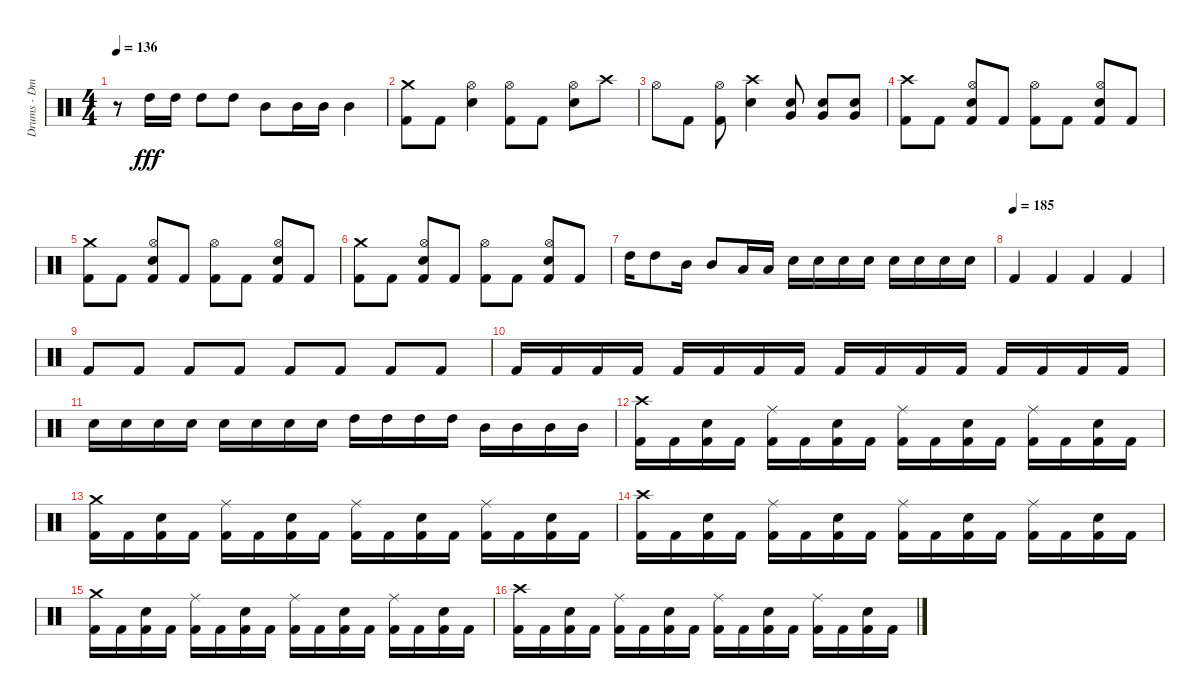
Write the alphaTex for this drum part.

\track ("Drums - Dmitriy Krivenkov" "Drums - Dm") {instrument percussion}
\staff {score}
\articulation defaults
\ts (4 4)
\tempo 136
\clef neutral
\ks c
r.8{dy fff} "High Tom (hit)".16 "High Tom (hit)".16 "High Tom (hit)".8 "High Tom (hit)".8 "Mid Tom (hit)".8 "Mid Tom (hit)".16 "Mid Tom (hit)".16 "Mid Tom (hit)".4 |
("Crash medium (hit)" "Kick (hit) 2").8 "Kick (hit) 2".8 ("Hi-Hat (open)" "Electric Snare (hit)").4 ("Hi-Hat (open)" "Kick (hit) 2").8 "Kick (hit) 2".8 ("Hi-Hat (open)" "Electric Snare (hit)").8 "Crash high (hit)".8 |
"Hi-Hat (open)".8 "Kick (hit) 2".8 ("Hi-Hat (open)" "Kick (hit) 2").8 ("Crash high (hit)" "Electric Snare (hit)").4 ("Very Low Tom (hit)" "Electric Snare (hit)").8 ("Very Low Tom (hit)" "Electric Snare (hit)").8 ("Very Low Tom (hit)" "Electric Snare (hit)").8 |
("Crash high (hit)" "Kick (hit) 2").8 "Kick (hit) 2".8 ("Hi-Hat (open)" "Electric Snare (hit)" "Kick (hit) 2").8 "Kick (hit) 2".8 ("Hi-Hat (open)" "Kick (hit) 2").8 "Kick (hit) 2".8 ("Hi-Hat (open)" "Electric Snare (hit)" "Kick (hit) 2").8 "Kick (hit) 2".8 |
("Crash medium (hit)" "Kick (hit) 2").8 "Kick (hit) 2".8 ("Hi-Hat (open)" "Electric Snare (hit)" "Kick (hit) 2").8 "Kick (hit) 2".8 ("Hi-Hat (open)" "Kick (hit) 2").8 "Kick (hit) 2".8 ("Hi-Hat (open)" "Electric Snare (hit)" "Kick (hit) 2").8 "Kick (hit) 2".8 |
("Crash medium (hit)" "Kick (hit) 2").8 "Kick (hit) 2".8 ("Hi-Hat (open)" "Electric Snare (hit)" "Kick (hit) 2").8 "Kick (hit) 2".8 ("Hi-Hat (open)" "Kick (hit) 2").8 "Kick (hit) 2".8 ("Hi-Hat (open)" "Electric Snare (hit)" "Kick (hit) 2").8 "Kick (hit) 2".8 |
"High Tom (hit)".16 "High Tom (hit)".8 "Mid Tom (hit)".16 "Mid Tom (hit)".8 "Low Tom (hit)".16 "Low Tom (hit)".16 "Electric Snare (hit)".16 "Electric Snare (hit)".16 "Electric Snare (hit)".16 "Electric Snare (hit)".16 "Electric Snare (hit)".16 "Electric Snare (hit)".16 "Electric Snare (hit)".16 "Electric Snare (hit)".16 |
\tempo (185)
"Kick (hit) 2".4 "Kick (hit) 2".4 "Kick (hit) 2".4 "Kick (hit) 2".4 |
"Kick (hit) 2".8 "Kick (hit) 2".8 "Kick (hit) 2".8 "Kick (hit) 2".8 "Kick (hit) 2".8 "Kick (hit) 2".8 "Kick (hit) 2".8 "Kick (hit) 2".8 |
"Kick (hit) 2".16 "Kick (hit) 2".16 "Kick (hit) 2".16 "Kick (hit) 2".16 "Kick (hit) 2".16 "Kick (hit) 2".16 "Kick (hit) 2".16 "Kick (hit) 2".16 "Kick (hit) 2".16 "Kick (hit) 2".16 "Kick (hit) 2".16 "Kick (hit) 2".16 "Kick (hit) 2".16 "Kick (hit) 2".16 "Kick (hit) 2".16 "Kick (hit) 2".16 |
"Electric Snare (hit)".16 "Electric Snare (hit)".16 "Electric Snare (hit)".16 "Electric Snare (hit)".16 "Electric Snare (hit)".16 "Electric Snare (hit)".16 "Electric Snare (hit)".16 "Electric Snare (hit)".16 "High Tom (hit)".16 "High Tom (hit)".16 "High Tom (hit)".16 "High Tom (hit)".16 "Mid Tom (hit)".16 "Mid Tom (hit)".16 "Mid Tom (hit)".16 "Mid Tom (hit)".16 |
("Crash high (hit)" "Kick (hit) 2").16 "Kick (hit) 2".16 ("Kick (hit) 2" "Electric Snare (hit)").16 "Kick (hit) 2".16 ("Ride (middle)" "Kick (hit) 2").16 "Kick (hit) 2".16 ("Electric Snare (hit)" "Kick (hit) 2").16 "Kick (hit) 2".16 ("Ride (middle)" "Kick (hit) 2").16 "Kick (hit) 2".16 ("Electric Snare (hit)" "Kick (hit) 2").16 "Kick (hit) 2".16 ("Ride (middle)" "Kick (hit) 2").16 "Kick (hit) 2".16 ("Electric Snare (hit)" "Kick (hit) 2").16 "Kick (hit) 2".16 |
("Crash medium (hit)" "Kick (hit) 2").16 "Kick (hit) 2".16 ("Kick (hit) 2" "Electric Snare (hit)").16 "Kick (hit) 2".16 ("Ride (middle)" "Kick (hit) 2").16 "Kick (hit) 2".16 ("Electric Snare (hit)" "Kick (hit) 2").16 "Kick (hit) 2".16 ("Ride (middle)" "Kick (hit) 2").16 "Kick (hit) 2".16 ("Electric Snare (hit)" "Kick (hit) 2").16 "Kick (hit) 2".16 ("Ride (middle)" "Kick (hit) 2").16 "Kick (hit) 2".16 ("Electric Snare (hit)" "Kick (hit) 2").16 "Kick (hit) 2".16 |
("Crash high (hit)" "Kick (hit) 2").16 "Kick (hit) 2".16 ("Kick (hit) 2" "Electric Snare (hit)").16 "Kick (hit) 2".16 ("Ride (middle)" "Kick (hit) 2").16 "Kick (hit) 2".16 ("Electric Snare (hit)" "Kick (hit) 2").16 "Kick (hit) 2".16 ("Ride (middle)" "Kick (hit) 2").16 "Kick (hit) 2".16 ("Electric Snare (hit)" "Kick (hit) 2").16 "Kick (hit) 2".16 ("Ride (middle)" "Kick (hit) 2").16 "Kick (hit) 2".16 ("Electric Snare (hit)" "Kick (hit) 2").16 "Kick (hit) 2".16 |
("Crash medium (hit)" "Kick (hit) 2").16 "Kick (hit) 2".16 ("Kick (hit) 2" "Electric Snare (hit)").16 "Kick (hit) 2".16 ("Ride (middle)" "Kick (hit) 2").16 "Kick (hit) 2".16 ("Electric Snare (hit)" "Kick (hit) 2").16 "Kick (hit) 2".16 ("Ride (middle)" "Kick (hit) 2").16 "Kick (hit) 2".16 ("Electric Snare (hit)" "Kick (hit) 2").16 "Kick (hit) 2".16 ("Ride (middle)" "Kick (hit) 2").16 "Kick (hit) 2".16 ("Electric Snare (hit)" "Kick (hit) 2").16 "Kick (hit) 2".16 |
("Crash high (hit)" "Kick (hit) 2").16 "Kick (hit) 2".16 ("Kick (hit) 2" "Electric Snare (hit)").16 "Kick (hit) 2".16 ("Ride (middle)" "Kick (hit) 2").16 "Kick (hit) 2".16 ("Electric Snare (hit)" "Kick (hit) 2").16 "Kick (hit) 2".16 ("Ride (middle)" "Kick (hit) 2").16 "Kick (hit) 2".16 ("Electric Snare (hit)" "Kick (hit) 2").16 "Kick (hit) 2".16 ("Ride (middle)" "Kick (hit) 2").16 "Kick (hit) 2".16 ("Electric Snare (hit)" "Kick (hit) 2").16 "Kick (hit) 2".16
